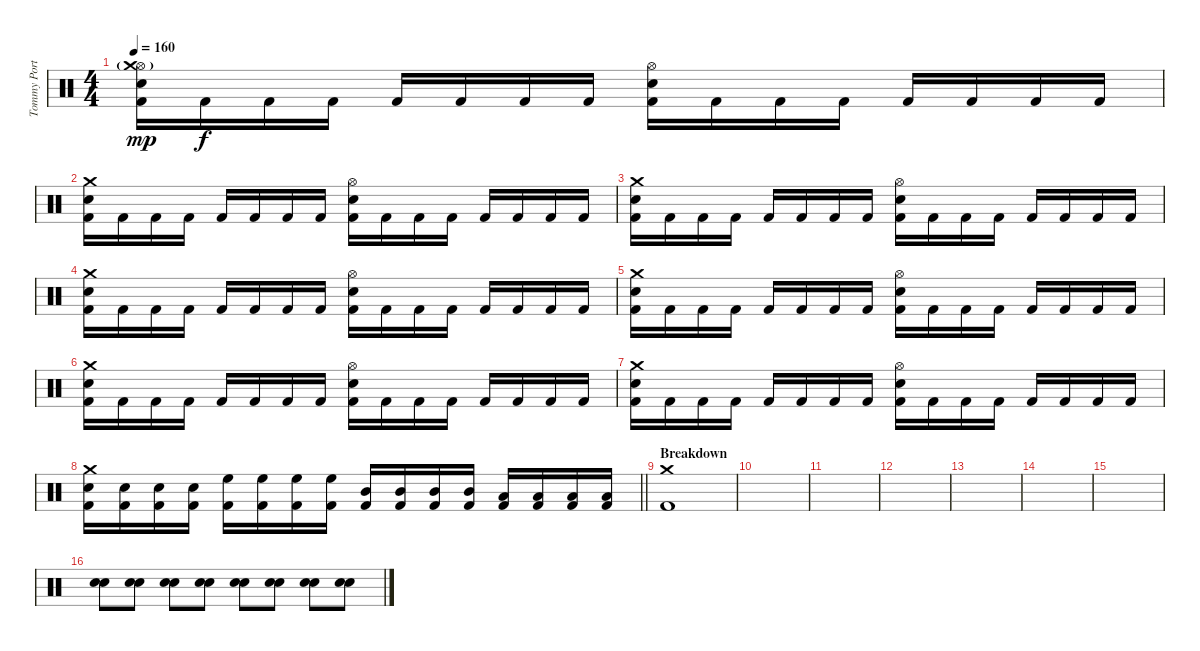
\track ("Tommy Portino" "Tommy Port") {instrument percussion}
\staff {score}
\articulation defaults
\ts (4 4)
\tempo 160
\clef neutral
\ks c
("Hi-Hat (open)"{g} "Crash medium (hit)" "Snare (hit) 2" "Kick (hit) 2").16{dy mp} "Kick (hit) 2".16{dy f} "Kick (hit) 2".16 "Kick (hit) 2".16 "Kick (hit) 2".16 "Kick (hit) 2".16 "Kick (hit) 2".16 "Kick (hit) 2".16 ("Hi-Hat (open)" "Snare (hit) 2" "Kick (hit) 2").16 "Kick (hit) 2".16 "Kick (hit) 2".16 "Kick (hit) 2".16 "Kick (hit) 2".16 "Kick (hit) 2".16 "Kick (hit) 2".16 "Kick (hit) 2".16 |
("Crash medium (hit)" "Snare (hit) 2" "Kick (hit) 2").16 "Kick (hit) 2".16 "Kick (hit) 2".16 "Kick (hit) 2".16 "Kick (hit) 2".16 "Kick (hit) 2".16 "Kick (hit) 2".16 "Kick (hit) 2".16 ("Hi-Hat (open)" "Snare (hit) 2" "Kick (hit) 2").16 "Kick (hit) 2".16 "Kick (hit) 2".16 "Kick (hit) 2".16 "Kick (hit) 2".16 "Kick (hit) 2".16 "Kick (hit) 2".16 "Kick (hit) 2".16 |
("Crash medium (hit)" "Snare (hit) 2" "Kick (hit) 2").16 "Kick (hit) 2".16 "Kick (hit) 2".16 "Kick (hit) 2".16 "Kick (hit) 2".16 "Kick (hit) 2".16 "Kick (hit) 2".16 "Kick (hit) 2".16 ("Hi-Hat (open)" "Snare (hit) 2" "Kick (hit) 2").16 "Kick (hit) 2".16 "Kick (hit) 2".16 "Kick (hit) 2".16 "Kick (hit) 2".16 "Kick (hit) 2".16 "Kick (hit) 2".16 "Kick (hit) 2".16 |
("Crash medium (hit)" "Snare (hit) 2" "Kick (hit) 2").16 "Kick (hit) 2".16 "Kick (hit) 2".16 "Kick (hit) 2".16 "Kick (hit) 2".16 "Kick (hit) 2".16 "Kick (hit) 2".16 "Kick (hit) 2".16 ("Hi-Hat (open)" "Snare (hit) 2" "Kick (hit) 2").16 "Kick (hit) 2".16 "Kick (hit) 2".16 "Kick (hit) 2".16 "Kick (hit) 2".16 "Kick (hit) 2".16 "Kick (hit) 2".16 "Kick (hit) 2".16 |
("Crash medium (hit)" "Snare (hit) 2" "Kick (hit) 2").16 "Kick (hit) 2".16 "Kick (hit) 2".16 "Kick (hit) 2".16 "Kick (hit) 2".16 "Kick (hit) 2".16 "Kick (hit) 2".16 "Kick (hit) 2".16 ("Hi-Hat (open)" "Snare (hit) 2" "Kick (hit) 2").16 "Kick (hit) 2".16 "Kick (hit) 2".16 "Kick (hit) 2".16 "Kick (hit) 2".16 "Kick (hit) 2".16 "Kick (hit) 2".16 "Kick (hit) 2".16 |
("Crash medium (hit)" "Snare (hit) 2" "Kick (hit) 2").16 "Kick (hit) 2".16 "Kick (hit) 2".16 "Kick (hit) 2".16 "Kick (hit) 2".16 "Kick (hit) 2".16 "Kick (hit) 2".16 "Kick (hit) 2".16 ("Hi-Hat (open)" "Snare (hit) 2" "Kick (hit) 2").16 "Kick (hit) 2".16 "Kick (hit) 2".16 "Kick (hit) 2".16 "Kick (hit) 2".16 "Kick (hit) 2".16 "Kick (hit) 2".16 "Kick (hit) 2".16 |
("Crash medium (hit)" "Snare (hit) 2" "Kick (hit) 2").16 "Kick (hit) 2".16 "Kick (hit) 2".16 "Kick (hit) 2".16 "Kick (hit) 2".16 "Kick (hit) 2".16 "Kick (hit) 2".16 "Kick (hit) 2".16 ("Hi-Hat (open)" "Snare (hit) 2" "Kick (hit) 2").16 "Kick (hit) 2".16 "Kick (hit) 2".16 "Kick (hit) 2".16 "Kick (hit) 2".16 "Kick (hit) 2".16 "Kick (hit) 2".16 "Kick (hit) 2".16 |
\barLineRight lightlight
("Crash medium (hit)" "Snare (hit) 2" "Kick (hit) 2").16 ("Snare (hit) 2" "Kick (hit) 2").16 ("Snare (hit) 2" "Kick (hit) 2").16 ("Snare (hit) 2" "Kick (hit) 2").16 ("High Floor Tom (hit)" "Kick (hit) 2").16 ("High Floor Tom (hit)" "Kick (hit) 2").16 ("High Floor Tom (hit)" "Kick (hit) 2").16 ("High Floor Tom (hit)" "Kick (hit) 2").16 ("Mid Tom (hit)" "Kick (hit) 2").16 ("Mid Tom (hit)" "Kick (hit) 2").16 ("Mid Tom (hit)" "Kick (hit) 2").16 ("Mid Tom (hit)" "Kick (hit) 2").16 ("Low Tom (hit)" "Kick (hit) 2").16 ("Low Tom (hit)" "Kick (hit) 2").16 ("Low Tom (hit)" "Kick (hit) 2").16 ("Low Tom (hit)" "Kick (hit) 2").16 |
\section ("" "Breakdown")
("Crash medium (hit)" "Kick (hit) 2").1 |
|
|
|
|
|
|
("Snare (hit) 2" "Snare (hit) 2").8 ("Snare (hit) 2" "Snare (hit) 2").8 ("Snare (hit) 2" "Snare (hit) 2").8 ("Snare (hit) 2" "Snare (hit) 2").8 ("Snare (hit) 2" "Snare (hit) 2").8 ("Snare (hit) 2" "Snare (hit) 2").8 ("Snare (hit) 2" "Snare (hit) 2").8 ("Snare (hit) 2" "Snare (hit) 2").8
